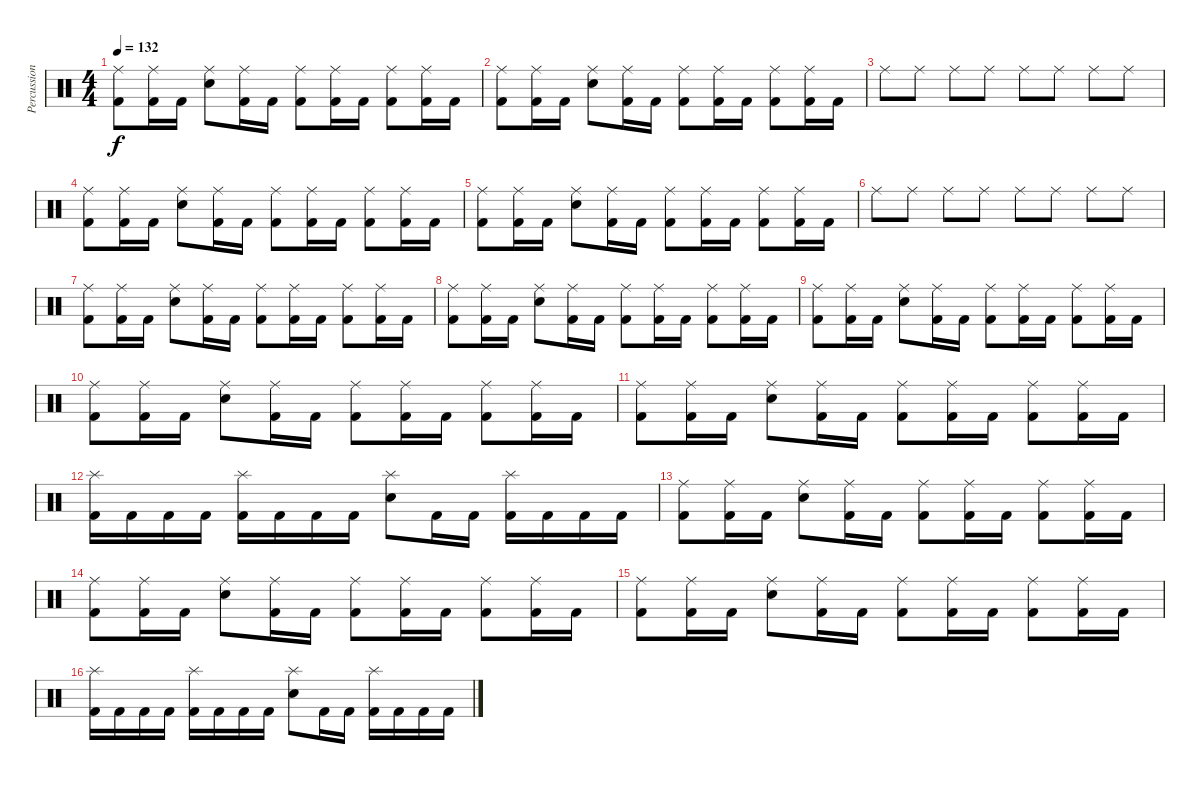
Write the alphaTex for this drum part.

\track ("Percussion" "Percussion") {instrument percussion}
\staff {score}
\articulation defaults
\ts (4 4)
\tempo 132
\clef neutral
\ks c
("Ride (middle)" "Kick (hit) 2").8{dy f} ("Ride (middle)" "Kick (hit) 2").16 "Kick (hit) 2".16 ("Ride (middle)" "Snare (hit) 2").8 ("Ride (middle)" "Kick (hit) 2").16 "Kick (hit) 2".16 ("Ride (middle)" "Kick (hit) 2").8 ("Ride (middle)" "Kick (hit) 2").16 "Kick (hit) 2".16 ("Ride (middle)" "Kick (hit) 2").8 ("Ride (middle)" "Kick (hit) 2").16 "Kick (hit) 2".16 |
("Ride (middle)" "Kick (hit) 2").8 ("Ride (middle)" "Kick (hit) 2").16 "Kick (hit) 2".16 ("Ride (middle)" "Snare (hit) 2").8 ("Ride (middle)" "Kick (hit) 2").16 "Kick (hit) 2".16 ("Ride (middle)" "Kick (hit) 2").8 ("Ride (middle)" "Kick (hit) 2").16 "Kick (hit) 2".16 ("Ride (middle)" "Kick (hit) 2").8 ("Ride (middle)" "Kick (hit) 2").16 "Kick (hit) 2".16 |
"Ride (middle)".8 "Ride (middle)".8 "Ride (middle)".8 "Ride (middle)".8 "Ride (middle)".8 "Ride (middle)".8 "Ride (middle)".8 "Ride (middle)".8 |
("Ride (middle)" "Kick (hit) 2").8 ("Ride (middle)" "Kick (hit) 2").16 "Kick (hit) 2".16 ("Ride (middle)" "Snare (hit) 2").8 ("Ride (middle)" "Kick (hit) 2").16 "Kick (hit) 2".16 ("Ride (middle)" "Kick (hit) 2").8 ("Ride (middle)" "Kick (hit) 2").16 "Kick (hit) 2".16 ("Ride (middle)" "Kick (hit) 2").8 ("Ride (middle)" "Kick (hit) 2").16 "Kick (hit) 2".16 |
("Ride (middle)" "Kick (hit) 2").8 ("Ride (middle)" "Kick (hit) 2").16 "Kick (hit) 2".16 ("Ride (middle)" "Snare (hit) 2").8 ("Ride (middle)" "Kick (hit) 2").16 "Kick (hit) 2".16 ("Ride (middle)" "Kick (hit) 2").8 ("Ride (middle)" "Kick (hit) 2").16 "Kick (hit) 2".16 ("Ride (middle)" "Kick (hit) 2").8 ("Ride (middle)" "Kick (hit) 2").16 "Kick (hit) 2".16 |
"Ride (middle)".8 "Ride (middle)".8 "Ride (middle)".8 "Ride (middle)".8 "Ride (middle)".8 "Ride (middle)".8 "Ride (middle)".8 "Ride (middle)".8 |
("Ride (middle)" "Kick (hit) 2").8 ("Ride (middle)" "Kick (hit) 2").16 "Kick (hit) 2".16 ("Ride (middle)" "Snare (hit) 2").8 ("Ride (middle)" "Kick (hit) 2").16 "Kick (hit) 2".16 ("Ride (middle)" "Kick (hit) 2").8 ("Ride (middle)" "Kick (hit) 2").16 "Kick (hit) 2".16 ("Ride (middle)" "Kick (hit) 2").8 ("Ride (middle)" "Kick (hit) 2").16 "Kick (hit) 2".16 |
("Ride (middle)" "Kick (hit) 2").8 ("Ride (middle)" "Kick (hit) 2").16 "Kick (hit) 2".16 ("Ride (middle)" "Snare (hit) 2").8 ("Ride (middle)" "Kick (hit) 2").16 "Kick (hit) 2".16 ("Ride (middle)" "Kick (hit) 2").8 ("Ride (middle)" "Kick (hit) 2").16 "Kick (hit) 2".16 ("Ride (middle)" "Kick (hit) 2").8 ("Ride (middle)" "Kick (hit) 2").16 "Kick (hit) 2".16 |
("Ride (middle)" "Kick (hit) 2").8 ("Ride (middle)" "Kick (hit) 2").16 "Kick (hit) 2".16 ("Ride (middle)" "Snare (hit) 2").8 ("Ride (middle)" "Kick (hit) 2").16 "Kick (hit) 2".16 ("Ride (middle)" "Kick (hit) 2").8 ("Ride (middle)" "Kick (hit) 2").16 "Kick (hit) 2".16 ("Ride (middle)" "Kick (hit) 2").8 ("Ride (middle)" "Kick (hit) 2").16 "Kick (hit) 2".16 |
("Ride (middle)" "Kick (hit) 2").8 ("Ride (middle)" "Kick (hit) 2").16 "Kick (hit) 2".16 ("Ride (middle)" "Snare (hit) 2").8 ("Ride (middle)" "Kick (hit) 2").16 "Kick (hit) 2".16 ("Ride (middle)" "Kick (hit) 2").8 ("Ride (middle)" "Kick (hit) 2").16 "Kick (hit) 2".16 ("Ride (middle)" "Kick (hit) 2").8 ("Ride (middle)" "Kick (hit) 2").16 "Kick (hit) 2".16 |
("Ride (middle)" "Kick (hit) 2").8 ("Ride (middle)" "Kick (hit) 2").16 "Kick (hit) 2".16 ("Ride (middle)" "Snare (hit) 2").8 ("Ride (middle)" "Kick (hit) 2").16 "Kick (hit) 2".16 ("Ride (middle)" "Kick (hit) 2").8 ("Ride (middle)" "Kick (hit) 2").16 "Kick (hit) 2".16 ("Ride (middle)" "Kick (hit) 2").8 ("Ride (middle)" "Kick (hit) 2").16 "Kick (hit) 2".16 |
("Splash (hit)" "Kick (hit) 2").16 "Kick (hit) 2".16 "Kick (hit) 2".16 "Kick (hit) 2".16 ("Splash (hit)" "Kick (hit) 2").16 "Kick (hit) 2".16 "Kick (hit) 2".16 "Kick (hit) 2".16 ("Splash (hit)" "Snare (hit) 2").8 "Kick (hit) 2".16 "Kick (hit) 2".16 ("Splash (hit)" "Kick (hit) 2").16 "Kick (hit) 2".16 "Kick (hit) 2".16 "Kick (hit) 2".16 |
("Ride (middle)" "Kick (hit) 2").8 ("Ride (middle)" "Kick (hit) 2").16 "Kick (hit) 2".16 ("Ride (middle)" "Snare (hit) 2").8 ("Ride (middle)" "Kick (hit) 2").16 "Kick (hit) 2".16 ("Ride (middle)" "Kick (hit) 2").8 ("Ride (middle)" "Kick (hit) 2").16 "Kick (hit) 2".16 ("Ride (middle)" "Kick (hit) 2").8 ("Ride (middle)" "Kick (hit) 2").16 "Kick (hit) 2".16 |
("Ride (middle)" "Kick (hit) 2").8 ("Ride (middle)" "Kick (hit) 2").16 "Kick (hit) 2".16 ("Ride (middle)" "Snare (hit) 2").8 ("Ride (middle)" "Kick (hit) 2").16 "Kick (hit) 2".16 ("Ride (middle)" "Kick (hit) 2").8 ("Ride (middle)" "Kick (hit) 2").16 "Kick (hit) 2".16 ("Ride (middle)" "Kick (hit) 2").8 ("Ride (middle)" "Kick (hit) 2").16 "Kick (hit) 2".16 |
("Ride (middle)" "Kick (hit) 2").8 ("Ride (middle)" "Kick (hit) 2").16 "Kick (hit) 2".16 ("Ride (middle)" "Snare (hit) 2").8 ("Ride (middle)" "Kick (hit) 2").16 "Kick (hit) 2".16 ("Ride (middle)" "Kick (hit) 2").8 ("Ride (middle)" "Kick (hit) 2").16 "Kick (hit) 2".16 ("Ride (middle)" "Kick (hit) 2").8 ("Ride (middle)" "Kick (hit) 2").16 "Kick (hit) 2".16 |
("Splash (hit)" "Kick (hit) 2").16 "Kick (hit) 2".16 "Kick (hit) 2".16 "Kick (hit) 2".16 ("Splash (hit)" "Kick (hit) 2").16 "Kick (hit) 2".16 "Kick (hit) 2".16 "Kick (hit) 2".16 ("Splash (hit)" "Snare (hit) 2").8 "Kick (hit) 2".16 "Kick (hit) 2".16 ("Splash (hit)" "Kick (hit) 2").16 "Kick (hit) 2".16 "Kick (hit) 2".16 "Kick (hit) 2".16
